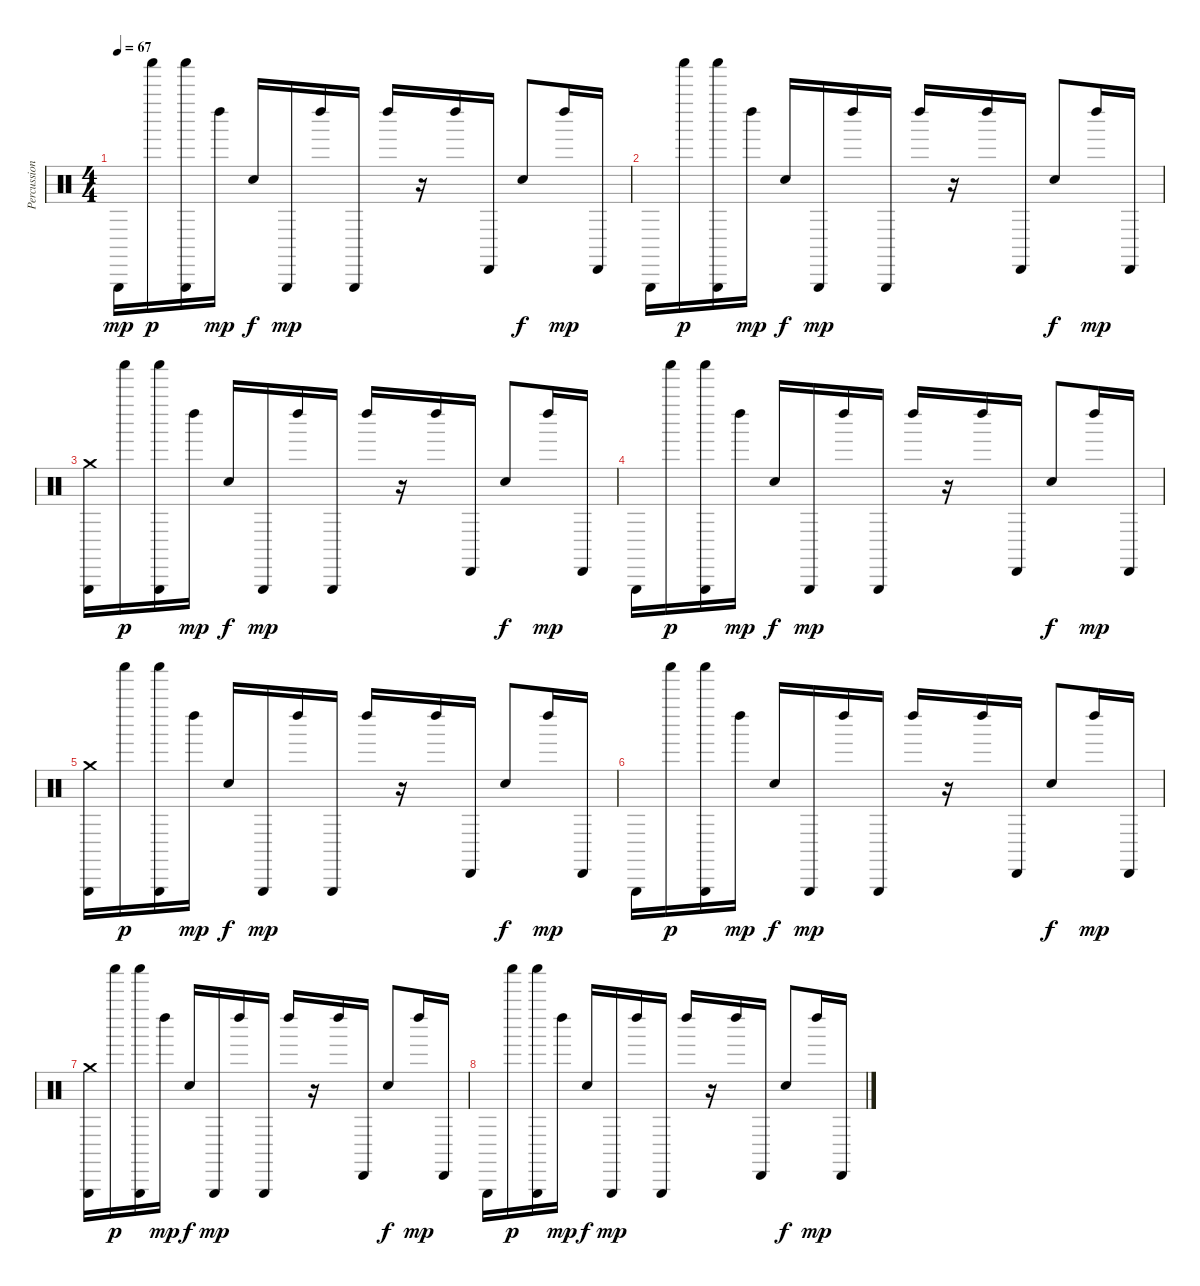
\track ("Percussion" "Percussion") {instrument percussion}
\staff {score}
\articulation defaults
\ts (4 4)
\tempo 67
\clef neutral
\ks c "Triangle (hit)".16{dy mp} "Shaker (hit)".16{dy p}
("Triangle (hit)" "Shaker (hit)").16 "Left Maraca (hit)".16{dy mp} "Snare (hit) 2".16{dy f} "Triangle (hit)".16{dy mp} "Left Maraca (hit)".16 "Triangle (hit)".16 "Left Maraca (hit)".16 r.16 "Left Maraca (hit)".16 "Cabasa (hit)".16 "Snare (hit) 2".8{dy f} "Left Maraca (hit)".16{dy mp} "Cabasa (hit)".16 |
"Triangle (hit)".16 "Shaker (hit)".16{dy p} ("Triangle (hit)" "Shaker (hit)").16 "Left Maraca (hit)".16{dy mp} "Snare (hit) 2".16{dy f} "Triangle (hit)".16{dy mp} "Left Maraca (hit)".16 "Triangle (hit)".16 "Left Maraca (hit)".16 r.16 "Left Maraca (hit)".16 "Cabasa (hit)".16 "Snare (hit) 2".8{dy f} "Left Maraca (hit)".16{dy mp} "Cabasa (hit)".16 |
("Crash medium (hit)" "Triangle (hit)").16 "Shaker (hit)".16{dy p} ("Triangle (hit)" "Shaker (hit)").16 "Left Maraca (hit)".16{dy mp} "Snare (hit) 2".16{dy f} "Triangle (hit)".16{dy mp} "Left Maraca (hit)".16 "Triangle (hit)".16 "Left Maraca (hit)".16 r.16 "Left Maraca (hit)".16 "Cabasa (hit)".16 "Snare (hit) 2".8{dy f} "Left Maraca (hit)".16{dy mp} "Cabasa (hit)".16 |
"Triangle (hit)".16 "Shaker (hit)".16{dy p} ("Triangle (hit)" "Shaker (hit)").16 "Left Maraca (hit)".16{dy mp} "Snare (hit) 2".16{dy f} "Triangle (hit)".16{dy mp} "Left Maraca (hit)".16 "Triangle (hit)".16 "Left Maraca (hit)".16 r.16 "Left Maraca (hit)".16 "Cabasa (hit)".16 "Snare (hit) 2".8{dy f} "Left Maraca (hit)".16{dy mp} "Cabasa (hit)".16 |
("Crash medium (hit)" "Triangle (hit)").16 "Shaker (hit)".16{dy p} ("Triangle (hit)" "Shaker (hit)").16 "Left Maraca (hit)".16{dy mp} "Snare (hit) 2".16{dy f} "Triangle (hit)".16{dy mp} "Left Maraca (hit)".16 "Triangle (hit)".16 "Left Maraca (hit)".16 r.16 "Left Maraca (hit)".16 "Cabasa (hit)".16 "Snare (hit) 2".8{dy f} "Left Maraca (hit)".16{dy mp} "Cabasa (hit)".16 |
"Triangle (hit)".16 "Shaker (hit)".16{dy p} ("Triangle (hit)" "Shaker (hit)").16 "Left Maraca (hit)".16{dy mp} "Snare (hit) 2".16{dy f} "Triangle (hit)".16{dy mp} "Left Maraca (hit)".16 "Triangle (hit)".16 "Left Maraca (hit)".16 r.16 "Left Maraca (hit)".16 "Cabasa (hit)".16 "Snare (hit) 2".8{dy f} "Left Maraca (hit)".16{dy mp} "Cabasa (hit)".16 |
("Crash medium (hit)" "Triangle (hit)").16 "Shaker (hit)".16{dy p} ("Triangle (hit)" "Shaker (hit)").16 "Left Maraca (hit)".16{dy mp} "Snare (hit) 2".16{dy f} "Triangle (hit)".16{dy mp} "Left Maraca (hit)".16 "Triangle (hit)".16 "Left Maraca (hit)".16 r.16 "Left Maraca (hit)".16 "Cabasa (hit)".16 "Snare (hit) 2".8{dy f} "Left Maraca (hit)".16{dy mp} "Cabasa (hit)".16 |
"Triangle (hit)".16 "Shaker (hit)".16{dy p} ("Triangle (hit)" "Shaker (hit)").16 "Left Maraca (hit)".16{dy mp} "Snare (hit) 2".16{dy f} "Triangle (hit)".16{dy mp} "Left Maraca (hit)".16 "Triangle (hit)".16 "Left Maraca (hit)".16 r.16 "Left Maraca (hit)".16 "Cabasa (hit)".16 "Snare (hit) 2".8{dy f} "Left Maraca (hit)".16{dy mp} "Cabasa (hit)".16
